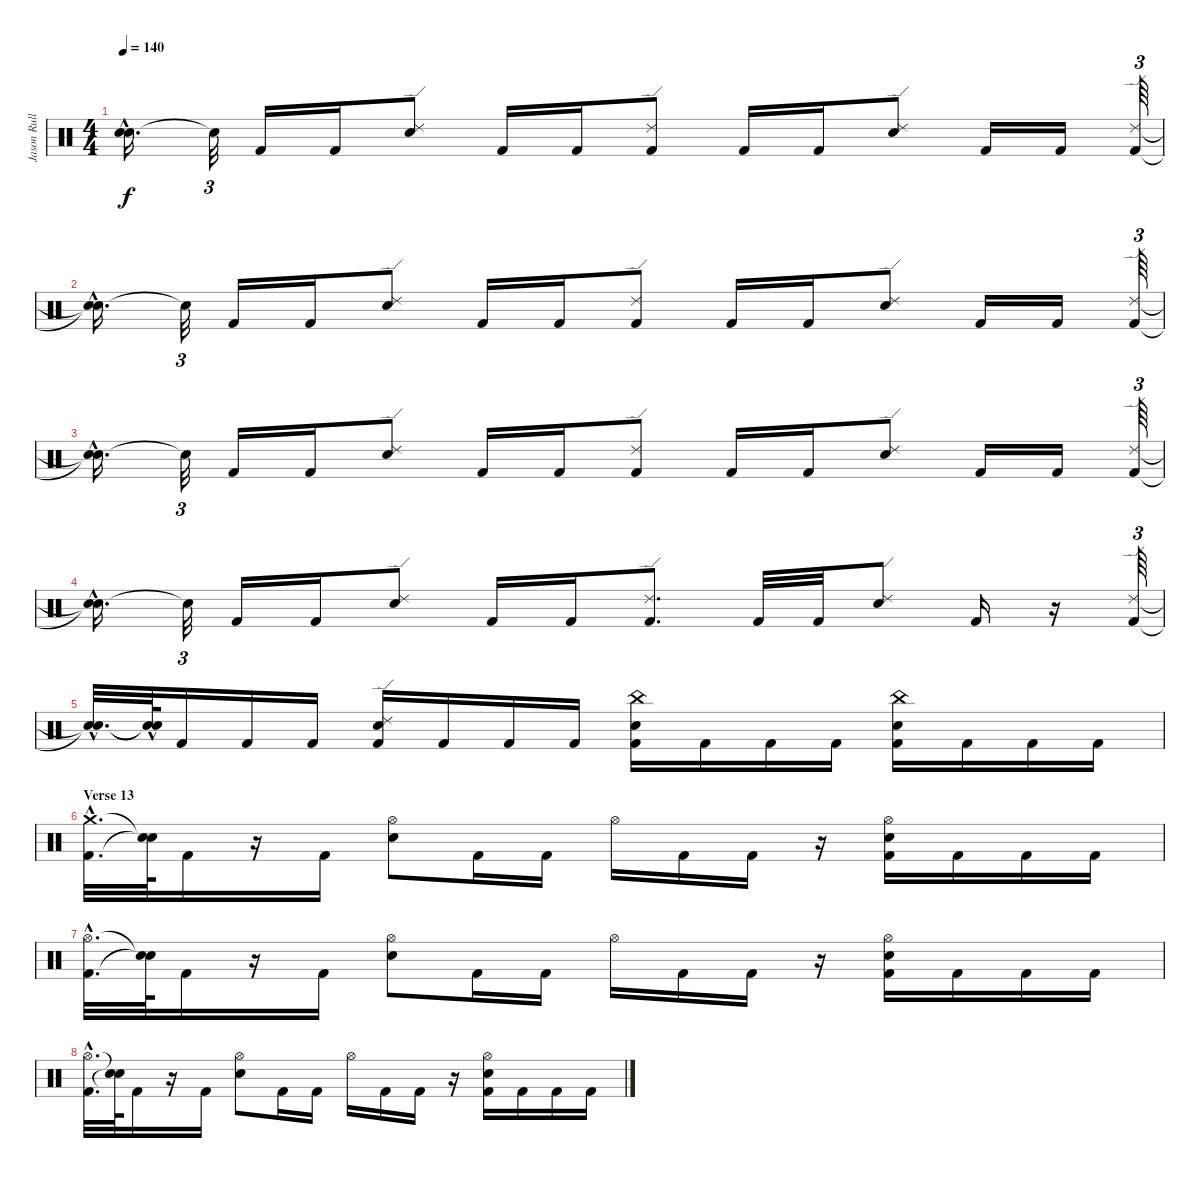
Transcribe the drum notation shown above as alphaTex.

\track ("Jason Rullo" "Jason Rull") {instrument percussion}
\staff {score}
\articulation defaults
\ts (4 4)
\tempo 140
\clef neutral
\ks c
("Snare (hit)"{hac t} "Snare (hit)"{hac t}).16{d dy f} "Snare (hit)"{t}.32{tu (3 2)} "Kick (hit) 2".16 "Kick (hit) 2".16 ("Ride (edge) 2" "Electric Snare (hit)").8 "Kick (hit) 2".16 "Kick (hit) 2".16 ("Ride (edge) 2" "Kick (hit) 2").8 "Kick (hit) 2".16 "Kick (hit) 2".16 ("Ride (edge) 2" "Electric Snare (hit)").8 "Kick (hit) 2".16 "Kick (hit) 2".16 ("Ride (edge) 2" "Kick (hit) 2").64{tu (3 2)} |
("Snare (hit)"{hac t} "Snare (hit)"{hac t}).16{d} "Snare (hit)"{t}.32{tu (3 2)} "Kick (hit) 2".16 "Kick (hit) 2".16 ("Ride (edge) 2" "Electric Snare (hit)").8 "Kick (hit) 2".16 "Kick (hit) 2".16 ("Ride (edge) 2" "Kick (hit) 2").8 "Kick (hit) 2".16 "Kick (hit) 2".16 ("Ride (edge) 2" "Electric Snare (hit)").8 "Kick (hit) 2".16 "Kick (hit) 2".16 ("Ride (edge) 2" "Kick (hit) 2").64{tu (3 2)} |
("Snare (hit)"{hac t} "Snare (hit)"{hac t}).16{d} "Snare (hit)"{t}.32{tu (3 2)} "Kick (hit) 2".16 "Kick (hit) 2".16 ("Ride (edge) 2" "Electric Snare (hit)").8 "Kick (hit) 2".16 "Kick (hit) 2".16 ("Ride (edge) 2" "Kick (hit) 2").8 "Kick (hit) 2".16 "Kick (hit) 2".16 ("Ride (edge) 2" "Electric Snare (hit)").8 "Kick (hit) 2".16 "Kick (hit) 2".16 ("Ride (edge) 2" "Kick (hit) 2").64{tu (3 2)} |
("Snare (hit)"{hac t} "Snare (hit)"{hac t}).16{d} "Snare (hit)"{t}.32{tu (3 2)} "Kick (hit) 2".16 "Kick (hit) 2".16 ("Ride (edge) 2" "Electric Snare (hit)").8 "Kick (hit) 2".16 "Kick (hit) 2".16 ("Ride (edge) 2" "Kick (hit) 2").8{d} "Kick (hit) 2".32 "Kick (hit) 2".32 ("Ride (edge) 2" "Electric Snare (hit)").8 "Kick (hit) 2".16 r.16 ("Ride (edge) 2" "Kick (hit) 2").64{tu (3 2)} |
("Snare (hit)"{hac t} "Snare (hit)"{hac t}).32{d} ("Snare (hit)"{hac t} "Snare (hit)"{t}).64 "Kick (hit) 2".16 "Kick (hit) 2".16 "Kick (hit) 2".16 ("Kick (hit) 2" "Ride (edge) 2" "Electric Snare (hit)").16 "Kick (hit) 2".16 "Kick (hit) 2".16 "Kick (hit) 2".16 ("China (hit)" "Electric Snare (hit)" "Kick (hit) 2").16 "Kick (hit) 2".16 "Kick (hit) 2".16 "Kick (hit) 2".16 ("China (hit)" "Kick (hit) 2" "Electric Snare (hit)").16 "Kick (hit) 2".16 "Kick (hit) 2".16 "Kick (hit) 2".16 |
\section ("" "Verse 13")
("Crash medium (hit)"{hac} "Kick (hit) 2"{hac}).32{d volume 15 balance 8} ("Snare (hit)"{t} "Snare (hit)"{t}).64 "Kick (hit) 2".16 r.16 "Kick (hit) 2".16 ("Hi-Hat (open)" "Electric Snare (hit)").8 "Kick (hit) 2".16 "Kick (hit) 2".16 "Hi-Hat (open)".16 "Kick (hit) 2".16 "Kick (hit) 2".16 r.16 ("Hi-Hat (open)" "Kick (hit) 2" "Electric Snare (hit)").16 "Kick (hit) 2".16 "Kick (hit) 2".16 "Kick (hit) 2".16 |
("Hi-Hat (open)"{hac} "Kick (hit) 2"{hac}).32{d} ("Snare (hit)"{t} "Snare (hit)"{t}).64 "Kick (hit) 2".16 r.16 "Kick (hit) 2".16 ("Hi-Hat (open)" "Electric Snare (hit)").8 "Kick (hit) 2".16 "Kick (hit) 2".16 "Hi-Hat (open)".16 "Kick (hit) 2".16 "Kick (hit) 2".16 r.16 ("Hi-Hat (open)" "Kick (hit) 2" "Electric Snare (hit)").16 "Kick (hit) 2".16 "Kick (hit) 2".16 "Kick (hit) 2".16 |
("Hi-Hat (open)"{hac} "Kick (hit) 2"{hac}).32{d} ("Snare (hit)"{t} "Snare (hit)"{t}).64 "Kick (hit) 2".16 r.16 "Kick (hit) 2".16 ("Hi-Hat (open)" "Electric Snare (hit)").8 "Kick (hit) 2".16 "Kick (hit) 2".16 "Hi-Hat (open)".16 "Kick (hit) 2".16 "Kick (hit) 2".16 r.16 ("Hi-Hat (open)" "Kick (hit) 2" "Electric Snare (hit)").16 "Kick (hit) 2".16 "Kick (hit) 2".16 "Kick (hit) 2".16
